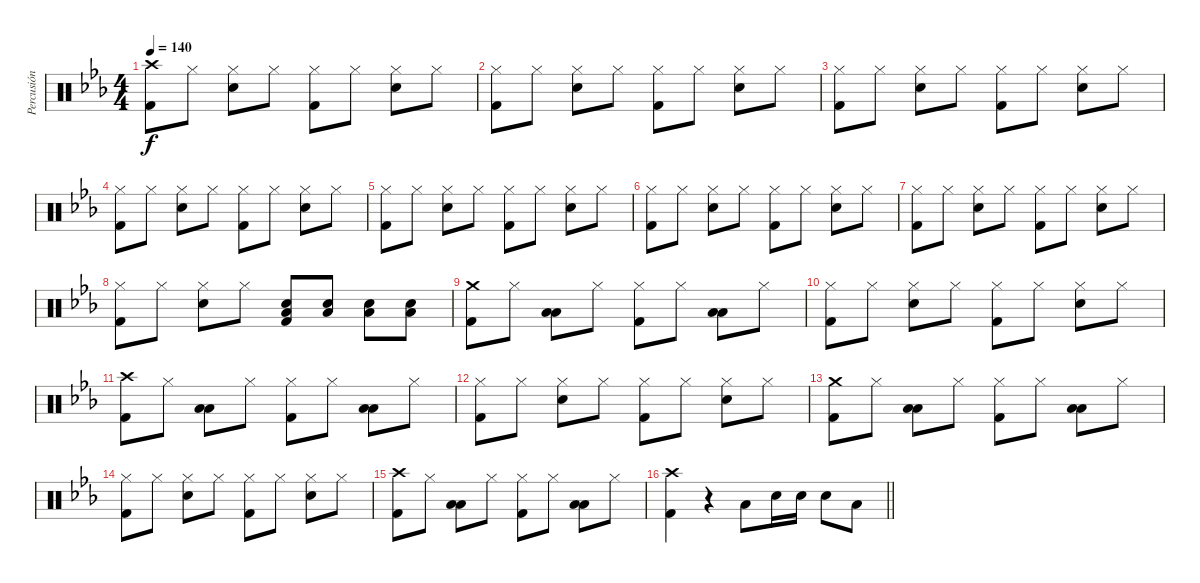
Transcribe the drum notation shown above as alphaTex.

\track ("Percusión" "Percusión") {instrument percussion}
\staff {score}
\articulation defaults
\ts (4 4)
\tempo 140
\clef neutral
\ks eb
("Crash high (hit)" "Kick (hit) 2").8{dy f} "Hi-Hat (closed)".8 ("Hi-Hat (closed)" "Snare (hit) 2").8 "Hi-Hat (closed)".8 ("Hi-Hat (closed)" "Kick (hit) 2").8 "Hi-Hat (closed)".8 ("Hi-Hat (closed)" "Snare (hit) 2").8 "Hi-Hat (closed)".8 |
("Hi-Hat (closed)" "Kick (hit) 2").8 "Hi-Hat (closed)".8 ("Hi-Hat (closed)" "Snare (hit) 2").8 "Hi-Hat (closed)".8 ("Hi-Hat (closed)" "Kick (hit) 2").8 "Hi-Hat (closed)".8 ("Hi-Hat (closed)" "Snare (hit) 2").8 "Hi-Hat (closed)".8 |
("Hi-Hat (closed)" "Kick (hit) 2").8 "Hi-Hat (closed)".8 ("Hi-Hat (closed)" "Snare (hit) 2").8 "Hi-Hat (closed)".8 ("Hi-Hat (closed)" "Kick (hit) 2").8 "Hi-Hat (closed)".8 ("Hi-Hat (closed)" "Snare (hit) 2").8 "Hi-Hat (closed)".8 |
("Hi-Hat (closed)" "Kick (hit) 2").8 "Hi-Hat (closed)".8 ("Hi-Hat (closed)" "Snare (hit) 2").8 "Hi-Hat (closed)".8 ("Hi-Hat (closed)" "Kick (hit) 2").8 "Hi-Hat (closed)".8 ("Hi-Hat (closed)" "Snare (hit) 2").8 "Hi-Hat (closed)".8 |
("Hi-Hat (closed)" "Kick (hit) 2").8 "Hi-Hat (closed)".8 ("Hi-Hat (closed)" "Snare (hit) 2").8 "Hi-Hat (closed)".8 ("Hi-Hat (closed)" "Kick (hit) 2").8 "Hi-Hat (closed)".8 ("Hi-Hat (closed)" "Snare (hit) 2").8 "Hi-Hat (closed)".8 |
("Hi-Hat (closed)" "Kick (hit) 2").8 "Hi-Hat (closed)".8 ("Hi-Hat (closed)" "Snare (hit) 2").8 "Hi-Hat (closed)".8 ("Hi-Hat (closed)" "Kick (hit) 2").8 "Hi-Hat (closed)".8 ("Hi-Hat (closed)" "Snare (hit) 2").8 "Hi-Hat (closed)".8 |
("Hi-Hat (closed)" "Kick (hit) 2").8 "Hi-Hat (closed)".8 ("Hi-Hat (closed)" "Snare (hit) 2").8 "Hi-Hat (closed)".8 ("Hi-Hat (closed)" "Kick (hit) 2").8 "Hi-Hat (closed)".8 ("Hi-Hat (closed)" "Snare (hit) 2").8 "Hi-Hat (closed)".8 |
("Hi-Hat (closed)" "Kick (hit) 2").8 "Hi-Hat (closed)".8 ("Hi-Hat (closed)" "Snare (hit) 2").8 "Hi-Hat (closed)".8 ("Low Floor Tom (hit)" "Snare (hit) 2" "Kick (hit) 2").8 ("Low Floor Tom (hit)" "Snare (hit) 2").8 ("Low Floor Tom (hit)" "Snare (hit) 2").8 ("Low Floor Tom (hit)" "Snare (hit) 2").8 |
("Crash medium (hit)" "Kick (hit) 2").8 "Hi-Hat (closed)".8 ("Low Floor Tom (hit)" "Low Tom (hit)").8 "Hi-Hat (closed)".8 ("Hi-Hat (closed)" "Kick (hit) 2").8 "Hi-Hat (closed)".8 ("Low Floor Tom (hit)" "Low Tom (hit)").8 "Hi-Hat (closed)".8 |
("Hi-Hat (closed)" "Kick (hit) 2").8 "Hi-Hat (closed)".8 ("Hi-Hat (closed)" "Snare (hit) 2").8 "Hi-Hat (closed)".8 ("Hi-Hat (closed)" "Kick (hit) 2").8 "Hi-Hat (closed)".8 ("Hi-Hat (closed)" "Snare (hit) 2").8 "Hi-Hat (closed)".8 |
("Crash high (hit)" "Kick (hit) 2").8 "Hi-Hat (closed)".8 ("Low Floor Tom (hit)" "Low Tom (hit)").8 "Hi-Hat (closed)".8 ("Hi-Hat (closed)" "Kick (hit) 2").8 "Hi-Hat (closed)".8 ("Low Floor Tom (hit)" "Low Tom (hit)").8 "Hi-Hat (closed)".8 |
("Hi-Hat (closed)" "Kick (hit) 2").8 "Hi-Hat (closed)".8 ("Hi-Hat (closed)" "Snare (hit) 2").8 "Hi-Hat (closed)".8 ("Hi-Hat (closed)" "Kick (hit) 2").8 "Hi-Hat (closed)".8 ("Hi-Hat (closed)" "Snare (hit) 2").8 "Hi-Hat (closed)".8 |
("Crash medium (hit)" "Kick (hit) 2").8 "Hi-Hat (closed)".8 ("Low Floor Tom (hit)" "Low Tom (hit)").8 "Hi-Hat (closed)".8 ("Hi-Hat (closed)" "Kick (hit) 2").8 "Hi-Hat (closed)".8 ("Low Floor Tom (hit)" "Low Tom (hit)").8 "Hi-Hat (closed)".8 |
("Hi-Hat (closed)" "Kick (hit) 2").8 "Hi-Hat (closed)".8 ("Hi-Hat (closed)" "Snare (hit) 2").8 "Hi-Hat (closed)".8 ("Hi-Hat (closed)" "Kick (hit) 2").8 "Hi-Hat (closed)".8 ("Hi-Hat (closed)" "Snare (hit) 2").8 "Hi-Hat (closed)".8 |
("Crash high (hit)" "Kick (hit) 2").8 "Hi-Hat (closed)".8 ("Low Floor Tom (hit)" "Low Tom (hit)").8 "Hi-Hat (closed)".8 ("Hi-Hat (closed)" "Kick (hit) 2").8 "Hi-Hat (closed)".8 ("Low Floor Tom (hit)" "Low Tom (hit)").8 "Hi-Hat (closed)".8 |
\barLineRight lightlight
("Crash high (hit)" "Kick (hit) 2").4 r.4 "Low Tom (hit)".8 "Snare (hit) 2".16 "Snare (hit) 2".16 "Snare (hit) 2".8 "Low Tom (hit)".8
